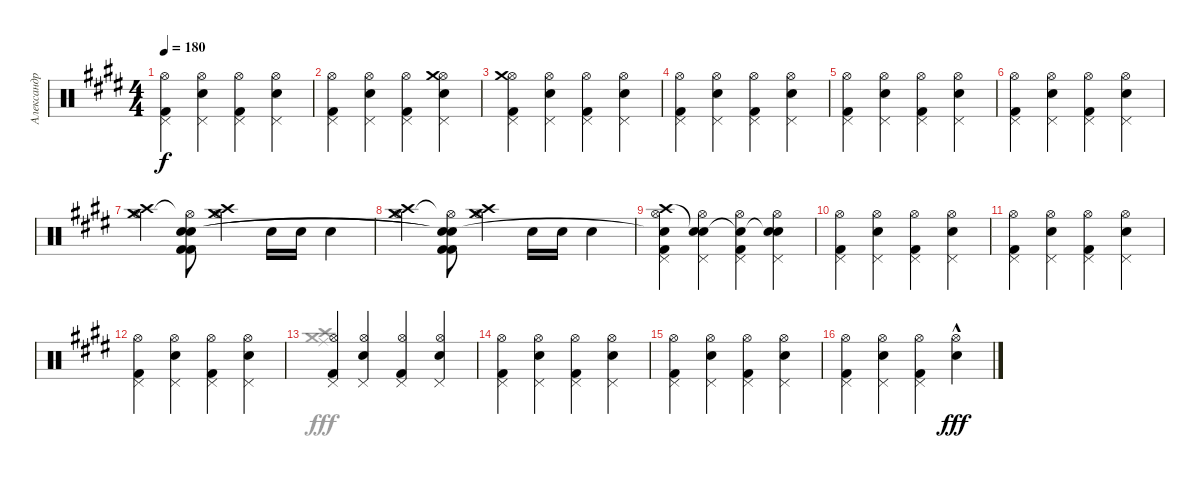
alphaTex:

\track ("Александр Новиков" "Александр ") {instrument percussion}
\staff {score}
\articulation defaults
\voice
\ts (4 4)
\tempo 180
\clef neutral
\ks c#minor
("Hi-Hat (open)" "Pedal Hi-Hat (hit)" "Kick (hit) 2").4{dy f} ("Hi-Hat (open)" "Pedal Hi-Hat (hit)" "Electric Snare (hit)").4 ("Hi-Hat (open)" "Pedal Hi-Hat (hit)" "Kick (hit) 2").4 ("Hi-Hat (open)" "Pedal Hi-Hat (hit)" "Electric Snare (hit)").4 |
("Hi-Hat (open)" "Pedal Hi-Hat (hit)" "Kick (hit) 2").4 ("Hi-Hat (open)" "Pedal Hi-Hat (hit)" "Electric Snare (hit)").4 ("Hi-Hat (open)" "Pedal Hi-Hat (hit)" "Kick (hit) 2").4 ("Hi-Hat (open)" "Pedal Hi-Hat (hit)" "Electric Snare (hit)" "Crash medium (hit)").4 |
("Hi-Hat (open)" "Pedal Hi-Hat (hit)" "Kick (hit) 2" "Crash medium (hit)").4 ("Hi-Hat (open)" "Pedal Hi-Hat (hit)" "Electric Snare (hit)").4 ("Hi-Hat (open)" "Pedal Hi-Hat (hit)" "Kick (hit) 2").4 ("Hi-Hat (open)" "Pedal Hi-Hat (hit)" "Electric Snare (hit)").4 |
("Hi-Hat (open)" "Pedal Hi-Hat (hit)" "Kick (hit) 2").4 ("Hi-Hat (open)" "Pedal Hi-Hat (hit)" "Electric Snare (hit)").4 ("Hi-Hat (open)" "Pedal Hi-Hat (hit)" "Kick (hit) 2").4 ("Hi-Hat (open)" "Pedal Hi-Hat (hit)" "Electric Snare (hit)").4 |
("Hi-Hat (open)" "Pedal Hi-Hat (hit)" "Kick (hit) 2").4 ("Hi-Hat (open)" "Pedal Hi-Hat (hit)" "Electric Snare (hit)").4 ("Hi-Hat (open)" "Pedal Hi-Hat (hit)" "Kick (hit) 2").4 ("Hi-Hat (open)" "Pedal Hi-Hat (hit)" "Electric Snare (hit)").4 |
("Hi-Hat (open)" "Pedal Hi-Hat (hit)" "Kick (hit) 2").4 ("Hi-Hat (open)" "Pedal Hi-Hat (hit)" "Electric Snare (hit)").4 ("Hi-Hat (open)" "Pedal Hi-Hat (hit)" "Kick (hit) 2").4 ("Hi-Hat (open)" "Pedal Hi-Hat (hit)" "Electric Snare (hit)").4 |
("Hi-Hat (open)" "Crash medium (hit)" "Crash high (hit)").4 ("Hi-Hat (open)"{t} "Kick (hit) 2" "Kick (hit) 2" "Snare (hit)" "Snare (hit)").8 ("Hi-Hat (open)" "Crash medium (hit)" "Crash high (hit)").4 "Electric Snare (hit)".16 "Electric Snare (hit)".16 "Electric Snare (hit)".4 |
("Hi-Hat (open)" "Crash medium (hit)" "Crash high (hit)").4 ("Hi-Hat (open)"{t} "Kick (hit) 2" "Kick (hit) 2" "Snare (hit)"{t} "Snare (hit)"{t}).8 ("Hi-Hat (open)" "Crash medium (hit)" "Crash high (hit)").4 "Electric Snare (hit)".16 "Electric Snare (hit)".16 "Electric Snare (hit)".4 |
("Hi-Hat (open)" "Kick (hit) 2" "Pedal Hi-Hat (hit)" "Crash high (hit)" "Snare (hit)"{t}).4 ("Hi-Hat (open)" "Electric Snare (hit)" "Pedal Hi-Hat (hit)" "Snare (hit)"{t}).4 ("Hi-Hat (open)" "Kick (hit) 2" "Pedal Hi-Hat (hit)" "Snare (hit)"{t}).4 ("Hi-Hat (open)" "Electric Snare (hit)" "Pedal Hi-Hat (hit)" "Snare (hit)"{t}).4 |
("Hi-Hat (open)" "Kick (hit) 2" "Pedal Hi-Hat (hit)").4 ("Hi-Hat (open)" "Electric Snare (hit)" "Pedal Hi-Hat (hit)").4 ("Hi-Hat (open)" "Kick (hit) 2" "Pedal Hi-Hat (hit)").4 ("Hi-Hat (open)" "Electric Snare (hit)" "Pedal Hi-Hat (hit)").4 |
("Hi-Hat (open)" "Kick (hit) 2" "Pedal Hi-Hat (hit)").4 ("Hi-Hat (open)" "Electric Snare (hit)" "Pedal Hi-Hat (hit)").4 ("Hi-Hat (open)" "Kick (hit) 2" "Pedal Hi-Hat (hit)").4 ("Hi-Hat (open)" "Electric Snare (hit)" "Pedal Hi-Hat (hit)").4 |
("Hi-Hat (open)" "Kick (hit) 2" "Pedal Hi-Hat (hit)").4 ("Hi-Hat (open)" "Electric Snare (hit)" "Pedal Hi-Hat (hit)").4 ("Hi-Hat (open)" "Kick (hit) 2" "Pedal Hi-Hat (hit)").4 ("Hi-Hat (open)" "Electric Snare (hit)" "Pedal Hi-Hat (hit)").4 |
("Hi-Hat (open)" "Kick (hit) 2" "Pedal Hi-Hat (hit)").4 ("Hi-Hat (open)" "Electric Snare (hit)" "Pedal Hi-Hat (hit)").4 ("Hi-Hat (open)" "Kick (hit) 2" "Pedal Hi-Hat (hit)").4 ("Hi-Hat (open)" "Electric Snare (hit)" "Pedal Hi-Hat (hit)").4 |
("Hi-Hat (open)" "Kick (hit) 2" "Pedal Hi-Hat (hit)").4 ("Hi-Hat (open)" "Electric Snare (hit)" "Pedal Hi-Hat (hit)").4 ("Hi-Hat (open)" "Kick (hit) 2" "Pedal Hi-Hat (hit)").4 ("Hi-Hat (open)" "Electric Snare (hit)" "Pedal Hi-Hat (hit)").4 |
("Hi-Hat (open)" "Kick (hit) 2" "Pedal Hi-Hat (hit)").4 ("Hi-Hat (open)" "Electric Snare (hit)" "Pedal Hi-Hat (hit)").4 ("Hi-Hat (open)" "Kick (hit) 2" "Pedal Hi-Hat (hit)").4 ("Hi-Hat (open)" "Electric Snare (hit)" "Pedal Hi-Hat (hit)").4 |
("Hi-Hat (open)" "Kick (hit) 2" "Pedal Hi-Hat (hit)").4 ("Hi-Hat (open)" "Electric Snare (hit)" "Pedal Hi-Hat (hit)").4 ("Hi-Hat (open)" "Kick (hit) 2" "Pedal Hi-Hat (hit)").4 ("Hi-Hat (open)"{hac} "Electric Snare (hit)").4{dy fff}
\voice
\clef neutral
\ottava regular
\simile none
\ks c#minor
|
|
|
|
|
|
|
|
|
|
|
|
("Crash high (hit)" "Crash medium (hit)" "Ride (middle)").1 |
|
|
